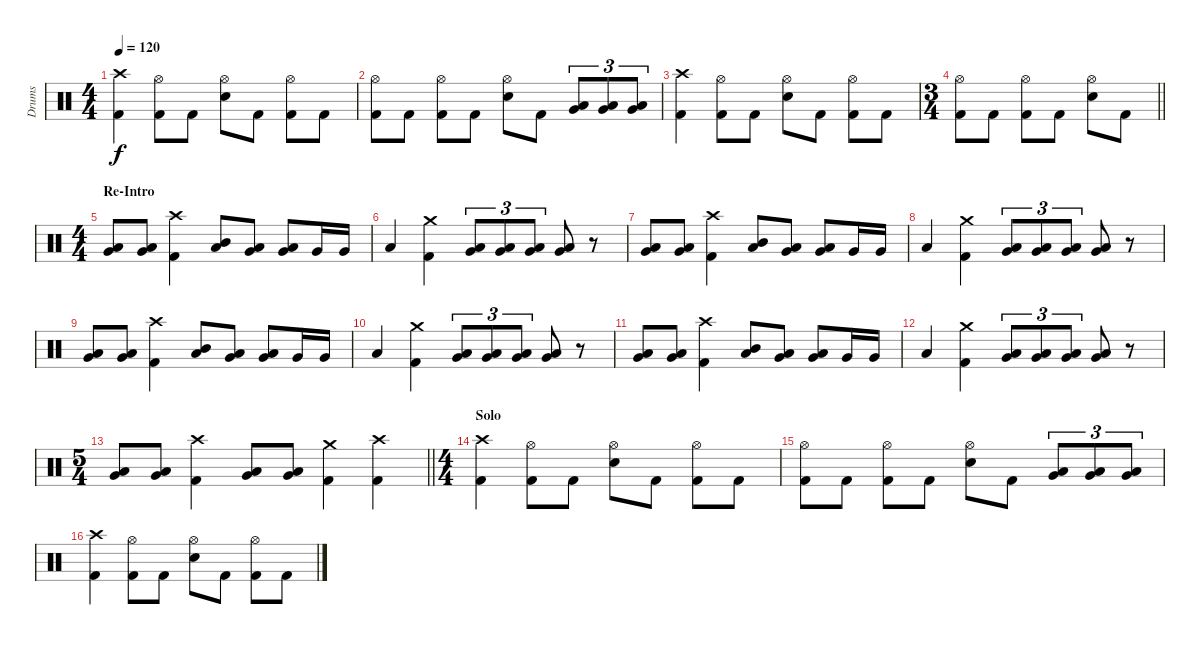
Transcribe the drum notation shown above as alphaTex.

\track ("Drums" "Drums") {instrument percussion}
\staff {score}
\articulation defaults
\ts (4 4)
\tempo 120
\clef neutral
\ks c
("Crash high (hit)" "Kick (hit) 2").4{dy f} ("Hi-Hat (open)" "Kick (hit) 2").8 "Kick (hit) 2".8 ("Hi-Hat (open)" "Electric Snare (hit)").8 "Kick (hit) 2".8 ("Hi-Hat (open)" "Kick (hit) 2").8 "Kick (hit) 2".8 |
("Hi-Hat (open)" "Kick (hit) 2").8 "Kick (hit) 2".8 ("Hi-Hat (open)" "Kick (hit) 2").8 "Kick (hit) 2".8 ("Hi-Hat (open)" "Electric Snare (hit)").8 "Kick (hit) 2".8 ("Low Tom (hit)" "Very Low Tom (hit)").8{tu (3 2)} ("Low Tom (hit)" "Very Low Tom (hit)").8{tu (3 2)} ("Low Tom (hit)" "Very Low Tom (hit)").8{tu (3 2)} |
("Crash high (hit)" "Kick (hit) 2").4 ("Hi-Hat (open)" "Kick (hit) 2").8 "Kick (hit) 2".8 ("Hi-Hat (open)" "Electric Snare (hit)").8 "Kick (hit) 2".8 ("Hi-Hat (open)" "Kick (hit) 2").8 "Kick (hit) 2".8 |
\ts (3 4)
\barLineRight lightlight
("Hi-Hat (open)" "Kick (hit) 2").8 "Kick (hit) 2".8 ("Hi-Hat (open)" "Kick (hit) 2").8 "Kick (hit) 2".8 ("Hi-Hat (open)" "Electric Snare (hit)").8 "Kick (hit) 2".8 |
\ts (4 4)
\section ("" "Re-Intro")
("Low Tom (hit)" "Very Low Tom (hit)").8 ("Low Tom (hit)" "Very Low Tom (hit)").8 ("Crash high (hit)" "Kick (hit) 2").4 ("Mid Tom (hit)" "Low Tom (hit)").8 ("Low Tom (hit)" "Very Low Tom (hit)").8 ("Low Tom (hit)" "Very Low Tom (hit)").8 "Very Low Tom (hit)".16 "Very Low Tom (hit)".16 |
"Low Tom (hit)".4 ("Crash medium (hit)" "Kick (hit) 2").4 ("Low Tom (hit)" "Very Low Tom (hit)").8{tu (3 2)} ("Low Tom (hit)" "Very Low Tom (hit)").8{tu (3 2)} ("Low Tom (hit)" "Very Low Tom (hit)").8{tu (3 2)} ("Low Tom (hit)" "Very Low Tom (hit)").8 r.8 |
("Low Tom (hit)" "Very Low Tom (hit)").8 ("Low Tom (hit)" "Very Low Tom (hit)").8 ("Crash high (hit)" "Kick (hit) 2").4 ("Mid Tom (hit)" "Low Tom (hit)").8 ("Low Tom (hit)" "Very Low Tom (hit)").8 ("Low Tom (hit)" "Very Low Tom (hit)").8 "Very Low Tom (hit)".16 "Very Low Tom (hit)".16 |
"Low Tom (hit)".4 ("Crash medium (hit)" "Kick (hit) 2").4 ("Low Tom (hit)" "Very Low Tom (hit)").8{tu (3 2)} ("Low Tom (hit)" "Very Low Tom (hit)").8{tu (3 2)} ("Low Tom (hit)" "Very Low Tom (hit)").8{tu (3 2)} ("Low Tom (hit)" "Very Low Tom (hit)").8 r.8 |
("Low Tom (hit)" "Very Low Tom (hit)").8 ("Low Tom (hit)" "Very Low Tom (hit)").8 ("Crash high (hit)" "Kick (hit) 2").4 ("Mid Tom (hit)" "Low Tom (hit)").8 ("Low Tom (hit)" "Very Low Tom (hit)").8 ("Low Tom (hit)" "Very Low Tom (hit)").8 "Very Low Tom (hit)".16 "Very Low Tom (hit)".16 |
"Low Tom (hit)".4 ("Crash medium (hit)" "Kick (hit) 2").4 ("Low Tom (hit)" "Very Low Tom (hit)").8{tu (3 2)} ("Low Tom (hit)" "Very Low Tom (hit)").8{tu (3 2)} ("Low Tom (hit)" "Very Low Tom (hit)").8{tu (3 2)} ("Low Tom (hit)" "Very Low Tom (hit)").8 r.8 |
("Low Tom (hit)" "Very Low Tom (hit)").8 ("Low Tom (hit)" "Very Low Tom (hit)").8 ("Crash high (hit)" "Kick (hit) 2").4 ("Mid Tom (hit)" "Low Tom (hit)").8 ("Low Tom (hit)" "Very Low Tom (hit)").8 ("Low Tom (hit)" "Very Low Tom (hit)").8 "Very Low Tom (hit)".16 "Very Low Tom (hit)".16 |
"Low Tom (hit)".4 ("Crash medium (hit)" "Kick (hit) 2").4 ("Low Tom (hit)" "Very Low Tom (hit)").8{tu (3 2)} ("Low Tom (hit)" "Very Low Tom (hit)").8{tu (3 2)} ("Low Tom (hit)" "Very Low Tom (hit)").8{tu (3 2)} ("Low Tom (hit)" "Very Low Tom (hit)").8 r.8 |
\ts (5 4)
\barLineRight lightlight
("Low Tom (hit)" "Very Low Tom (hit)").8 ("Low Tom (hit)" "Very Low Tom (hit)").8 ("Crash high (hit)" "Kick (hit) 2").4 ("Low Tom (hit)" "Very Low Tom (hit)").8 ("Low Tom (hit)" "Very Low Tom (hit)").8 ("Crash medium (hit)" "Kick (hit) 2").4 ("Crash high (hit)" "Kick (hit) 2").4 |
\ts (4 4)
\section ("" "Solo")
("Crash high (hit)" "Kick (hit) 2").4 ("Hi-Hat (open)" "Kick (hit) 2").8 "Kick (hit) 2".8 ("Hi-Hat (open)" "Electric Snare (hit)").8 "Kick (hit) 2".8 ("Hi-Hat (open)" "Kick (hit) 2").8 "Kick (hit) 2".8 |
("Hi-Hat (open)" "Kick (hit) 2").8 "Kick (hit) 2".8 ("Hi-Hat (open)" "Kick (hit) 2").8 "Kick (hit) 2".8 ("Hi-Hat (open)" "Electric Snare (hit)").8 "Kick (hit) 2".8 ("Low Tom (hit)" "Very Low Tom (hit)").8{tu (3 2)} ("Low Tom (hit)" "Very Low Tom (hit)").8{tu (3 2)} ("Low Tom (hit)" "Very Low Tom (hit)").8{tu (3 2)} |
("Crash high (hit)" "Kick (hit) 2").4 ("Hi-Hat (open)" "Kick (hit) 2").8 "Kick (hit) 2".8 ("Hi-Hat (open)" "Electric Snare (hit)").8 "Kick (hit) 2".8 ("Hi-Hat (open)" "Kick (hit) 2").8 "Kick (hit) 2".8
